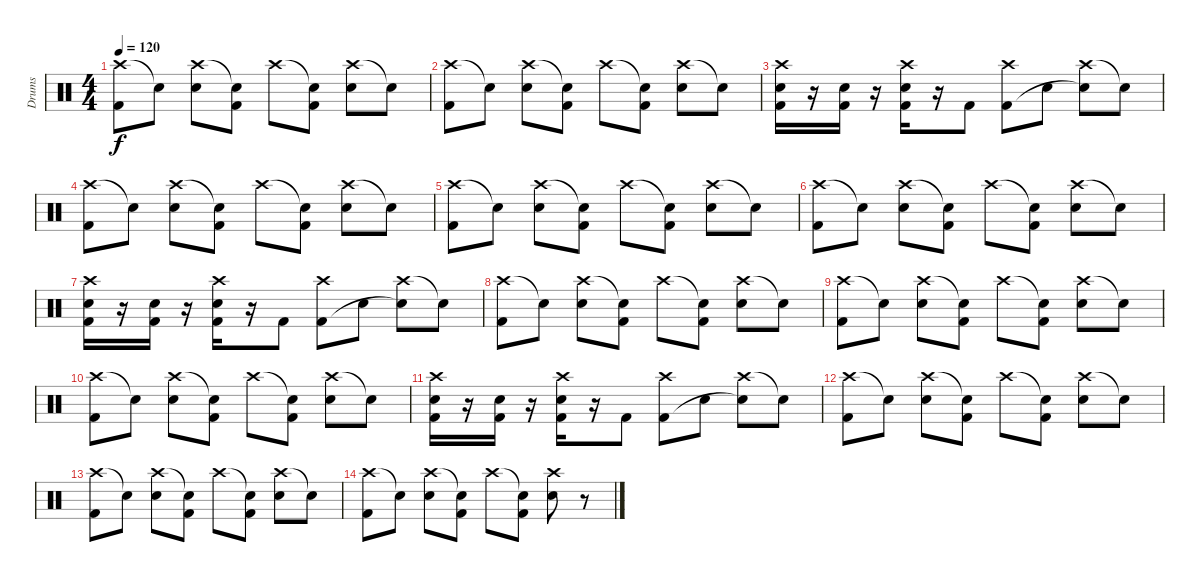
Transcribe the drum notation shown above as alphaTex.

\track ("Drums" "Drums") {instrument percussion}
\staff {score}
\articulation defaults
\ts (4 4)
\tempo 120
\clef neutral
\ks c
("Crash high (hit)" "Kick (hit) 2").8{dy f} "Snare (hit)"{t}.8 ("Crash high (hit)" "Electric Snare (hit)").8 ("Snare (hit)"{t} "Kick (hit) 2").8 "Crash high (hit)".8 ("Snare (hit)"{t} "Kick (hit) 2").8 ("Crash high (hit)" "Electric Snare (hit)").8 "Snare (hit)"{t}.8 |
("Crash high (hit)" "Kick (hit) 2").8 "Snare (hit)"{t}.8 ("Crash high (hit)" "Electric Snare (hit)").8 ("Snare (hit)"{t} "Kick (hit) 2").8 "Crash high (hit)".8 ("Snare (hit)"{t} "Kick (hit) 2").8 ("Crash high (hit)" "Electric Snare (hit)").8 "Snare (hit)"{t}.8 |
("Crash high (hit)" "Electric Snare (hit)" "Kick (hit) 2").16 r.16 ("Electric Snare (hit)" "Kick (hit) 2").16 r.16 ("Crash high (hit)" "Electric Snare (hit)" "Kick (hit) 2").16 r.16 "Kick (hit) 2".8 ("Crash high (hit)" "Kick (hit) 2").8 "Electric Snare (hit)".8 ("Crash high (hit)" "Snare (hit)"{t}).8 "Snare (hit)"{t}.8 |
("Crash high (hit)" "Kick (hit) 2").8 "Snare (hit)"{t}.8 ("Crash high (hit)" "Electric Snare (hit)").8 ("Snare (hit)"{t} "Kick (hit) 2").8 "Crash high (hit)".8 ("Snare (hit)"{t} "Kick (hit) 2").8 ("Crash high (hit)" "Electric Snare (hit)").8 "Snare (hit)"{t}.8 |
("Crash high (hit)" "Kick (hit) 2").8 "Snare (hit)"{t}.8 ("Crash high (hit)" "Electric Snare (hit)").8 ("Snare (hit)"{t} "Kick (hit) 2").8 "Crash high (hit)".8 ("Snare (hit)"{t} "Kick (hit) 2").8 ("Crash high (hit)" "Electric Snare (hit)").8 "Snare (hit)"{t}.8 |
("Crash high (hit)" "Kick (hit) 2").8 "Snare (hit)"{t}.8 ("Crash high (hit)" "Electric Snare (hit)").8 ("Snare (hit)"{t} "Kick (hit) 2").8 "Crash high (hit)".8 ("Snare (hit)"{t} "Kick (hit) 2").8 ("Crash high (hit)" "Electric Snare (hit)").8 "Snare (hit)"{t}.8 |
("Crash high (hit)" "Electric Snare (hit)" "Kick (hit) 2").16 r.16 ("Electric Snare (hit)" "Kick (hit) 2").16 r.16 ("Crash high (hit)" "Electric Snare (hit)" "Kick (hit) 2").16 r.16 "Kick (hit) 2".8 ("Crash high (hit)" "Kick (hit) 2").8 "Electric Snare (hit)".8 ("Crash high (hit)" "Snare (hit)"{t}).8 "Snare (hit)"{t}.8 |
("Crash high (hit)" "Kick (hit) 2").8 "Snare (hit)"{t}.8 ("Crash high (hit)" "Electric Snare (hit)").8 ("Snare (hit)"{t} "Kick (hit) 2").8 "Crash high (hit)".8 ("Snare (hit)"{t} "Kick (hit) 2").8 ("Crash high (hit)" "Electric Snare (hit)").8 "Snare (hit)"{t}.8 |
("Crash high (hit)" "Kick (hit) 2").8 "Snare (hit)"{t}.8 ("Crash high (hit)" "Electric Snare (hit)").8 ("Snare (hit)"{t} "Kick (hit) 2").8 "Crash high (hit)".8 ("Snare (hit)"{t} "Kick (hit) 2").8 ("Crash high (hit)" "Electric Snare (hit)").8 "Snare (hit)"{t}.8 |
("Crash high (hit)" "Kick (hit) 2").8 "Snare (hit)"{t}.8 ("Crash high (hit)" "Electric Snare (hit)").8 ("Snare (hit)"{t} "Kick (hit) 2").8 "Crash high (hit)".8 ("Snare (hit)"{t} "Kick (hit) 2").8 ("Crash high (hit)" "Electric Snare (hit)").8 "Snare (hit)"{t}.8 |
("Crash high (hit)" "Electric Snare (hit)" "Kick (hit) 2").16 r.16 ("Electric Snare (hit)" "Kick (hit) 2").16 r.16 ("Crash high (hit)" "Electric Snare (hit)" "Kick (hit) 2").16 r.16 "Kick (hit) 2".8 ("Crash high (hit)" "Kick (hit) 2").8 "Electric Snare (hit)".8 ("Crash high (hit)" "Snare (hit)"{t}).8 "Snare (hit)"{t}.8 |
("Crash high (hit)" "Kick (hit) 2").8 "Snare (hit)"{t}.8 ("Crash high (hit)" "Electric Snare (hit)").8 ("Snare (hit)"{t} "Kick (hit) 2").8 "Crash high (hit)".8 ("Snare (hit)"{t} "Kick (hit) 2").8 ("Crash high (hit)" "Electric Snare (hit)").8 "Snare (hit)"{t}.8 |
("Crash high (hit)" "Kick (hit) 2").8 "Snare (hit)"{t}.8 ("Crash high (hit)" "Electric Snare (hit)").8 ("Snare (hit)"{t} "Kick (hit) 2").8 "Crash high (hit)".8 ("Snare (hit)"{t} "Kick (hit) 2").8 ("Crash high (hit)" "Electric Snare (hit)").8 "Snare (hit)"{t}.8 |
("Crash high (hit)" "Kick (hit) 2").8 "Snare (hit)"{t}.8 ("Crash high (hit)" "Electric Snare (hit)").8 ("Snare (hit)"{t} "Kick (hit) 2").8 "Crash high (hit)".8 ("Snare (hit)"{t} "Kick (hit) 2").8 ("Crash high (hit)" "Electric Snare (hit)").8 r.8
